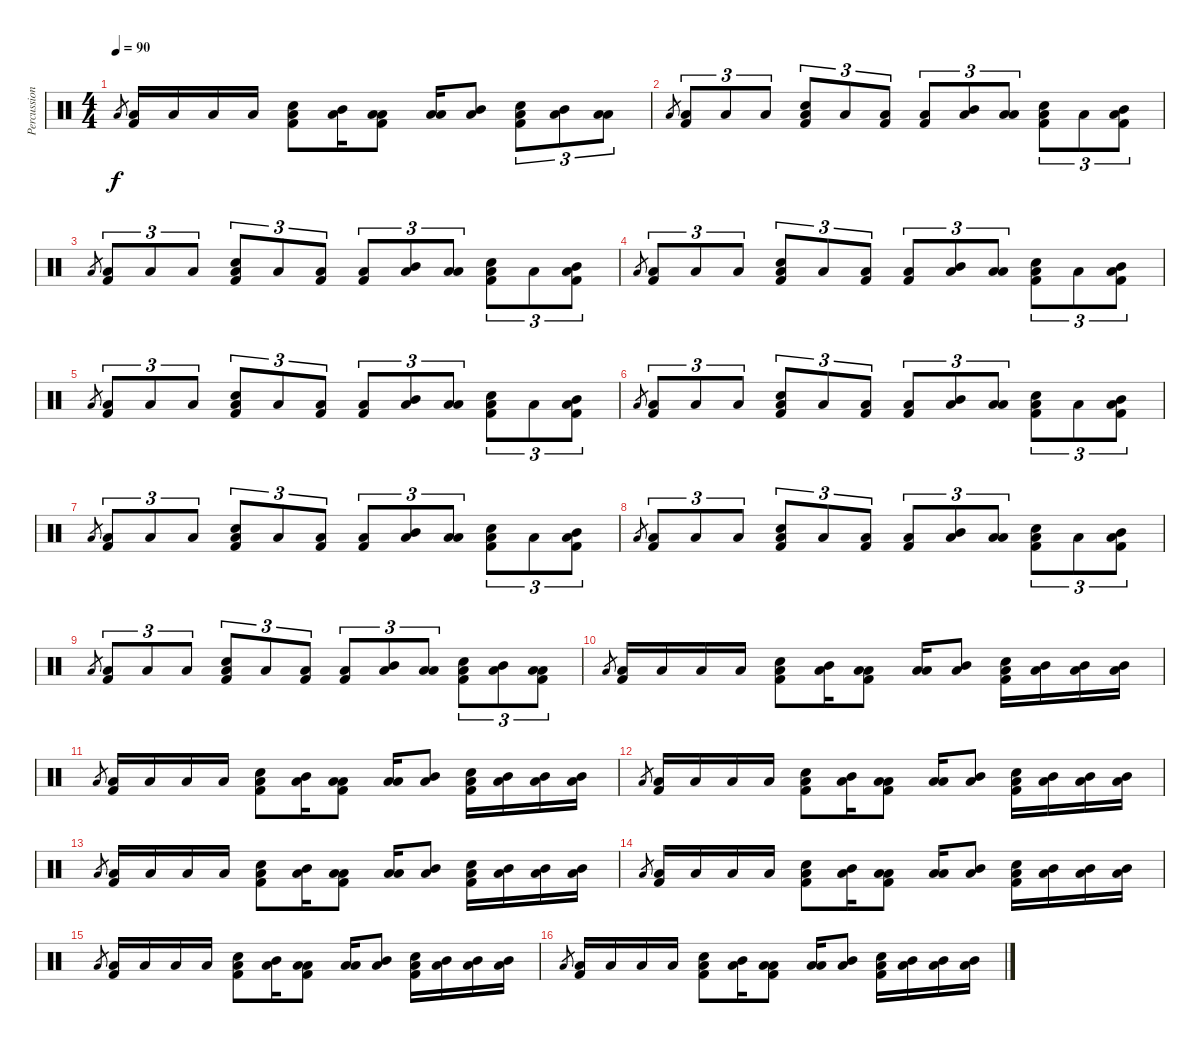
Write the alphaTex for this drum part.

\track ("Percussion" "Percussion") {instrument percussion}
\staff {score}
\articulation defaults
\ts (4 4)
\tempo 90
\clef neutral
\ks c "Low Floor Tom (hit)".8{gr dy f}
("Low Floor Tom (hit)" "Kick (hit) 2").16 "Low Floor Tom (hit)".16 "Low Floor Tom (hit)".16 "Low Floor Tom (hit)".16 ("Low Floor Tom (hit)" "Snare (hit) 2" "Kick (hit) 2").8 ("Low Floor Tom (hit)" "Mid Tom (hit)").16 ("Low Floor Tom (hit)" "Low Tom (hit)" "Kick (hit) 2").8 ("Low Floor Tom (hit)" "Low Tom (hit)").16 ("Low Floor Tom (hit)" "Mid Tom (hit)").8 ("Low Floor Tom (hit)" "Snare (hit) 2" "Kick (hit) 2").8{tu (3 2)} ("Low Floor Tom (hit)" "Mid Tom (hit)").8{tu (3 2)} ("Low Floor Tom (hit)" "Low Tom (hit)").8{tu (3 2)} |
"Low Floor Tom (hit)".8{gr} ("Low Floor Tom (hit)" "Kick (hit) 2").8{tu (3 2)} "Low Floor Tom (hit)".8{tu (3 2)} "Low Floor Tom (hit)".8{tu (3 2)} ("Low Floor Tom (hit)" "Snare (hit) 2" "Kick (hit) 2").8{tu (3 2)} "Low Floor Tom (hit)".8{tu (3 2)} ("Low Floor Tom (hit)" "Kick (hit) 2").8{tu (3 2)} ("Low Floor Tom (hit)" "Kick (hit) 2").8{tu (3 2)} ("Low Floor Tom (hit)" "Mid Tom (hit)").8{tu (3 2)} ("Low Floor Tom (hit)" "Low Tom (hit)").8{tu (3 2)} ("Low Floor Tom (hit)" "Snare (hit) 2" "Kick (hit) 2").8{tu (3 2)} "Low Floor Tom (hit)".8{tu (3 2)} ("Low Floor Tom (hit)" "Mid Tom (hit)" "Kick (hit) 2").8{tu (3 2)} |
"Low Floor Tom (hit)".8{gr} ("Low Floor Tom (hit)" "Kick (hit) 2").8{tu (3 2)} "Low Floor Tom (hit)".8{tu (3 2)} "Low Floor Tom (hit)".8{tu (3 2)} ("Low Floor Tom (hit)" "Snare (hit) 2" "Kick (hit) 2").8{tu (3 2)} "Low Floor Tom (hit)".8{tu (3 2)} ("Low Floor Tom (hit)" "Kick (hit) 2").8{tu (3 2)} ("Low Floor Tom (hit)" "Kick (hit) 2").8{tu (3 2)} ("Low Floor Tom (hit)" "Mid Tom (hit)").8{tu (3 2)} ("Low Floor Tom (hit)" "Low Tom (hit)").8{tu (3 2)} ("Low Floor Tom (hit)" "Snare (hit) 2" "Kick (hit) 2").8{tu (3 2)} "Low Floor Tom (hit)".8{tu (3 2)} ("Low Floor Tom (hit)" "Mid Tom (hit)" "Kick (hit) 2").8{tu (3 2)} |
"Low Floor Tom (hit)".8{gr} ("Low Floor Tom (hit)" "Kick (hit) 2").8{tu (3 2)} "Low Floor Tom (hit)".8{tu (3 2)} "Low Floor Tom (hit)".8{tu (3 2)} ("Low Floor Tom (hit)" "Snare (hit) 2" "Kick (hit) 2").8{tu (3 2)} "Low Floor Tom (hit)".8{tu (3 2)} ("Low Floor Tom (hit)" "Kick (hit) 2").8{tu (3 2)} ("Low Floor Tom (hit)" "Kick (hit) 2").8{tu (3 2)} ("Low Floor Tom (hit)" "Mid Tom (hit)").8{tu (3 2)} ("Low Floor Tom (hit)" "Low Tom (hit)").8{tu (3 2)} ("Low Floor Tom (hit)" "Snare (hit) 2" "Kick (hit) 2").8{tu (3 2)} "Low Floor Tom (hit)".8{tu (3 2)} ("Low Floor Tom (hit)" "Mid Tom (hit)" "Kick (hit) 2").8{tu (3 2)} |
"Low Floor Tom (hit)".8{gr} ("Low Floor Tom (hit)" "Kick (hit) 2").8{tu (3 2)} "Low Floor Tom (hit)".8{tu (3 2)} "Low Floor Tom (hit)".8{tu (3 2)} ("Low Floor Tom (hit)" "Snare (hit) 2" "Kick (hit) 2").8{tu (3 2)} "Low Floor Tom (hit)".8{tu (3 2)} ("Low Floor Tom (hit)" "Kick (hit) 2").8{tu (3 2)} ("Low Floor Tom (hit)" "Kick (hit) 2").8{tu (3 2)} ("Low Floor Tom (hit)" "Mid Tom (hit)").8{tu (3 2)} ("Low Floor Tom (hit)" "Low Tom (hit)").8{tu (3 2)} ("Low Floor Tom (hit)" "Snare (hit) 2" "Kick (hit) 2").8{tu (3 2)} "Low Floor Tom (hit)".8{tu (3 2)} ("Low Floor Tom (hit)" "Mid Tom (hit)" "Kick (hit) 2").8{tu (3 2)} |
"Low Floor Tom (hit)".8{gr} ("Low Floor Tom (hit)" "Kick (hit) 2").8{tu (3 2)} "Low Floor Tom (hit)".8{tu (3 2)} "Low Floor Tom (hit)".8{tu (3 2)} ("Low Floor Tom (hit)" "Snare (hit) 2" "Kick (hit) 2").8{tu (3 2)} "Low Floor Tom (hit)".8{tu (3 2)} ("Low Floor Tom (hit)" "Kick (hit) 2").8{tu (3 2)} ("Low Floor Tom (hit)" "Kick (hit) 2").8{tu (3 2)} ("Low Floor Tom (hit)" "Mid Tom (hit)").8{tu (3 2)} ("Low Floor Tom (hit)" "Low Tom (hit)").8{tu (3 2)} ("Low Floor Tom (hit)" "Snare (hit) 2" "Kick (hit) 2").8{tu (3 2)} "Low Floor Tom (hit)".8{tu (3 2)} ("Low Floor Tom (hit)" "Mid Tom (hit)" "Kick (hit) 2").8{tu (3 2)} |
"Low Floor Tom (hit)".8{gr} ("Low Floor Tom (hit)" "Kick (hit) 2").8{tu (3 2)} "Low Floor Tom (hit)".8{tu (3 2)} "Low Floor Tom (hit)".8{tu (3 2)} ("Low Floor Tom (hit)" "Snare (hit) 2" "Kick (hit) 2").8{tu (3 2)} "Low Floor Tom (hit)".8{tu (3 2)} ("Low Floor Tom (hit)" "Kick (hit) 2").8{tu (3 2)} ("Low Floor Tom (hit)" "Kick (hit) 2").8{tu (3 2)} ("Low Floor Tom (hit)" "Mid Tom (hit)").8{tu (3 2)} ("Low Floor Tom (hit)" "Low Tom (hit)").8{tu (3 2)} ("Low Floor Tom (hit)" "Snare (hit) 2" "Kick (hit) 2").8{tu (3 2)} "Low Floor Tom (hit)".8{tu (3 2)} ("Low Floor Tom (hit)" "Mid Tom (hit)" "Kick (hit) 2").8{tu (3 2)} |
"Low Floor Tom (hit)".8{gr} ("Low Floor Tom (hit)" "Kick (hit) 2").8{tu (3 2)} "Low Floor Tom (hit)".8{tu (3 2)} "Low Floor Tom (hit)".8{tu (3 2)} ("Low Floor Tom (hit)" "Snare (hit) 2" "Kick (hit) 2").8{tu (3 2)} "Low Floor Tom (hit)".8{tu (3 2)} ("Low Floor Tom (hit)" "Kick (hit) 2").8{tu (3 2)} ("Low Floor Tom (hit)" "Kick (hit) 2").8{tu (3 2)} ("Low Floor Tom (hit)" "Mid Tom (hit)").8{tu (3 2)} ("Low Floor Tom (hit)" "Low Tom (hit)").8{tu (3 2)} ("Low Floor Tom (hit)" "Snare (hit) 2" "Kick (hit) 2").8{tu (3 2)} "Low Floor Tom (hit)".8{tu (3 2)} ("Low Floor Tom (hit)" "Mid Tom (hit)" "Kick (hit) 2").8{tu (3 2)} |
"Low Floor Tom (hit)".8{gr} ("Low Floor Tom (hit)" "Kick (hit) 2").8{tu (3 2)} "Low Floor Tom (hit)".8{tu (3 2)} "Low Floor Tom (hit)".8{tu (3 2)} ("Low Floor Tom (hit)" "Snare (hit) 2" "Kick (hit) 2").8{tu (3 2)} "Low Floor Tom (hit)".8{tu (3 2)} ("Low Floor Tom (hit)" "Kick (hit) 2").8{tu (3 2)} ("Low Floor Tom (hit)" "Kick (hit) 2").8{tu (3 2)} ("Low Floor Tom (hit)" "Mid Tom (hit)").8{tu (3 2)} ("Low Floor Tom (hit)" "Low Tom (hit)").8{tu (3 2)} ("Low Floor Tom (hit)" "Snare (hit) 2" "Kick (hit) 2").8{tu (3 2)} ("Low Floor Tom (hit)" "Mid Tom (hit)").8{tu (3 2)} ("Low Floor Tom (hit)" "Low Tom (hit)" "Kick (hit) 2").8{tu (3 2)} |
"Low Floor Tom (hit)".8{gr} ("Low Floor Tom (hit)" "Kick (hit) 2").16 "Low Floor Tom (hit)".16 "Low Floor Tom (hit)".16 "Low Floor Tom (hit)".16 ("Low Floor Tom (hit)" "Snare (hit) 2" "Kick (hit) 2").8 ("Low Floor Tom (hit)" "Mid Tom (hit)").16 ("Low Floor Tom (hit)" "Low Tom (hit)" "Kick (hit) 2").8 ("Low Floor Tom (hit)" "Low Tom (hit)").16 ("Low Floor Tom (hit)" "Mid Tom (hit)").8 ("Low Floor Tom (hit)" "Snare (hit) 2" "Kick (hit) 2").16 ("Low Floor Tom (hit)" "Mid Tom (hit)").16 ("Low Floor Tom (hit)" "Mid Tom (hit)").16 ("Low Floor Tom (hit)" "Mid Tom (hit)").16 |
"Low Floor Tom (hit)".8{gr} ("Low Floor Tom (hit)" "Kick (hit) 2").16 "Low Floor Tom (hit)".16 "Low Floor Tom (hit)".16 "Low Floor Tom (hit)".16 ("Low Floor Tom (hit)" "Snare (hit) 2" "Kick (hit) 2").8 ("Low Floor Tom (hit)" "Mid Tom (hit)").16 ("Low Floor Tom (hit)" "Low Tom (hit)" "Kick (hit) 2").8 ("Low Floor Tom (hit)" "Low Tom (hit)").16 ("Low Floor Tom (hit)" "Mid Tom (hit)").8 ("Low Floor Tom (hit)" "Snare (hit) 2" "Kick (hit) 2").16 ("Low Floor Tom (hit)" "Mid Tom (hit)").16 ("Low Floor Tom (hit)" "Mid Tom (hit)").16 ("Low Floor Tom (hit)" "Mid Tom (hit)").16 |
"Low Floor Tom (hit)".8{gr} ("Low Floor Tom (hit)" "Kick (hit) 2").16 "Low Floor Tom (hit)".16 "Low Floor Tom (hit)".16 "Low Floor Tom (hit)".16 ("Low Floor Tom (hit)" "Snare (hit) 2" "Kick (hit) 2").8 ("Low Floor Tom (hit)" "Mid Tom (hit)").16 ("Low Floor Tom (hit)" "Low Tom (hit)" "Kick (hit) 2").8 ("Low Floor Tom (hit)" "Low Tom (hit)").16 ("Low Floor Tom (hit)" "Mid Tom (hit)").8 ("Low Floor Tom (hit)" "Snare (hit) 2" "Kick (hit) 2").16 ("Low Floor Tom (hit)" "Mid Tom (hit)").16 ("Low Floor Tom (hit)" "Mid Tom (hit)").16 ("Low Floor Tom (hit)" "Mid Tom (hit)").16 |
"Low Floor Tom (hit)".8{gr} ("Low Floor Tom (hit)" "Kick (hit) 2").16 "Low Floor Tom (hit)".16 "Low Floor Tom (hit)".16 "Low Floor Tom (hit)".16 ("Low Floor Tom (hit)" "Snare (hit) 2" "Kick (hit) 2").8 ("Low Floor Tom (hit)" "Mid Tom (hit)").16 ("Low Floor Tom (hit)" "Low Tom (hit)" "Kick (hit) 2").8 ("Low Floor Tom (hit)" "Low Tom (hit)").16 ("Low Floor Tom (hit)" "Mid Tom (hit)").8 ("Low Floor Tom (hit)" "Snare (hit) 2" "Kick (hit) 2").16 ("Low Floor Tom (hit)" "Mid Tom (hit)").16 ("Low Floor Tom (hit)" "Mid Tom (hit)").16 ("Low Floor Tom (hit)" "Mid Tom (hit)").16 |
"Low Floor Tom (hit)".8{gr} ("Low Floor Tom (hit)" "Kick (hit) 2").16 "Low Floor Tom (hit)".16 "Low Floor Tom (hit)".16 "Low Floor Tom (hit)".16 ("Low Floor Tom (hit)" "Snare (hit) 2" "Kick (hit) 2").8 ("Low Floor Tom (hit)" "Mid Tom (hit)").16 ("Low Floor Tom (hit)" "Low Tom (hit)" "Kick (hit) 2").8 ("Low Floor Tom (hit)" "Low Tom (hit)").16 ("Low Floor Tom (hit)" "Mid Tom (hit)").8 ("Low Floor Tom (hit)" "Snare (hit) 2" "Kick (hit) 2").16 ("Low Floor Tom (hit)" "Mid Tom (hit)").16 ("Low Floor Tom (hit)" "Mid Tom (hit)").16 ("Low Floor Tom (hit)" "Mid Tom (hit)").16 |
"Low Floor Tom (hit)".8{gr} ("Low Floor Tom (hit)" "Kick (hit) 2").16 "Low Floor Tom (hit)".16 "Low Floor Tom (hit)".16 "Low Floor Tom (hit)".16 ("Low Floor Tom (hit)" "Snare (hit) 2" "Kick (hit) 2").8 ("Low Floor Tom (hit)" "Mid Tom (hit)").16 ("Low Floor Tom (hit)" "Low Tom (hit)" "Kick (hit) 2").8 ("Low Floor Tom (hit)" "Low Tom (hit)").16 ("Low Floor Tom (hit)" "Mid Tom (hit)").8 ("Low Floor Tom (hit)" "Snare (hit) 2" "Kick (hit) 2").16 ("Low Floor Tom (hit)" "Mid Tom (hit)").16 ("Low Floor Tom (hit)" "Mid Tom (hit)").16 ("Low Floor Tom (hit)" "Mid Tom (hit)").16 |
"Low Floor Tom (hit)".8{gr} ("Low Floor Tom (hit)" "Kick (hit) 2").16 "Low Floor Tom (hit)".16 "Low Floor Tom (hit)".16 "Low Floor Tom (hit)".16 ("Low Floor Tom (hit)" "Snare (hit) 2" "Kick (hit) 2").8 ("Low Floor Tom (hit)" "Mid Tom (hit)").16 ("Low Floor Tom (hit)" "Low Tom (hit)" "Kick (hit) 2").8 ("Low Floor Tom (hit)" "Low Tom (hit)").16 ("Low Floor Tom (hit)" "Mid Tom (hit)").8 ("Low Floor Tom (hit)" "Snare (hit) 2" "Kick (hit) 2").16 ("Low Floor Tom (hit)" "Mid Tom (hit)").16 ("Low Floor Tom (hit)" "Mid Tom (hit)").16 ("Low Floor Tom (hit)" "Mid Tom (hit)").16
